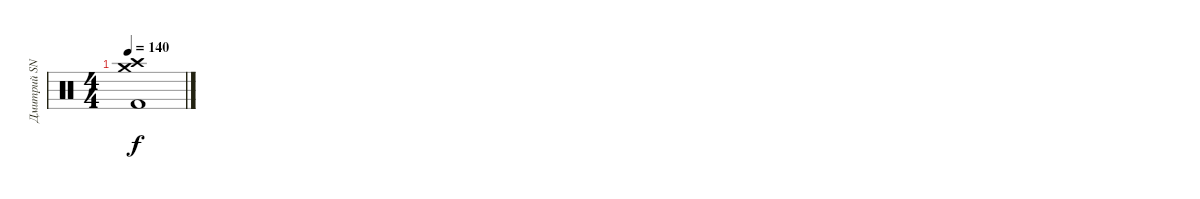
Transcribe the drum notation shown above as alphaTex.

\track ("Дмитрий SNAKE Хакимов" "Дмитрий SN") {instrument percussion}
\staff {score}
\articulation defaults
\ts (4 4)
\tempo 140
\clef neutral
\ks c
("Crash high (hit)" "Crash medium (hit)" "Kick (hit) 2").1{dy f}
